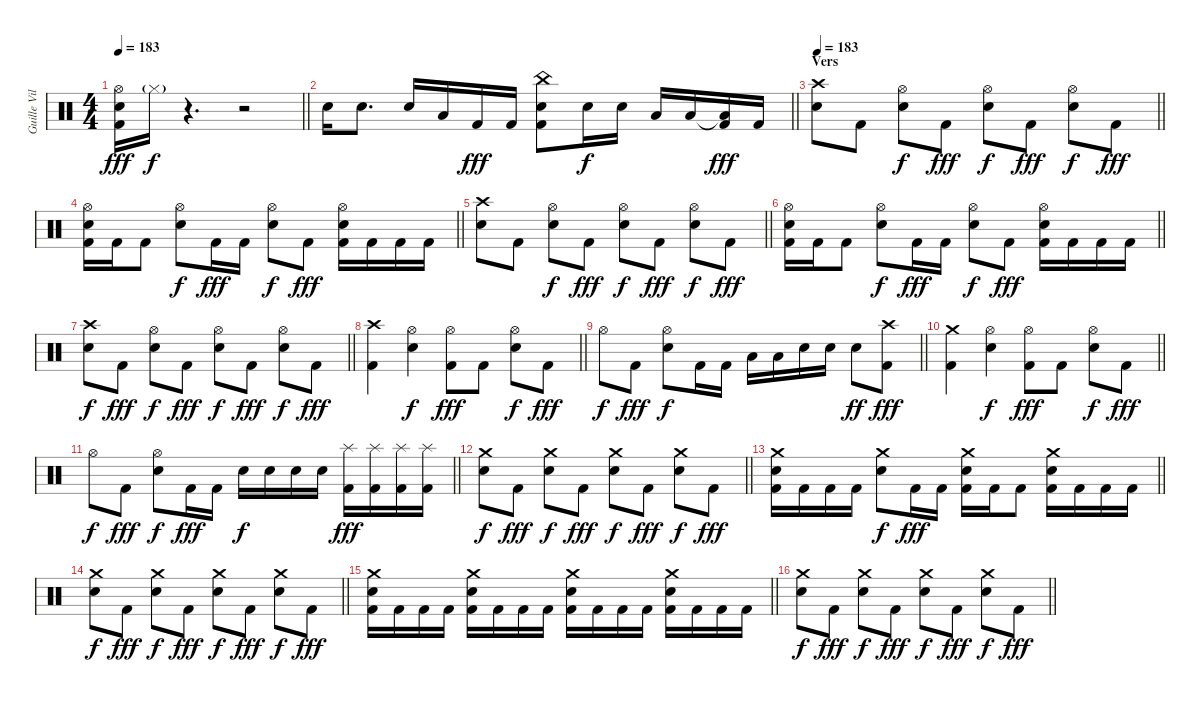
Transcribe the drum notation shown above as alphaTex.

\track ("Guille Vila" "Guille Vil") {instrument percussion}
\staff {score}
\articulation defaults
\ts (4 4)
\tempo 183
\clef neutral
\barLineRight lightlight
\ks c
("Hi-Hat (open)" "Snare (hit) 2" "Kick (hit) 2").16{dy fff} "Hi-Hat (closed)"{g}.16{dy f} r.4{d} r.2 |
\barLineRight lightlight "Snare (hit) 2".16 "Snare (hit) 2".8{d} "Snare (hit) 2".16 "Low Tom (hit)".16 "Kick (hit) 2".16{dy fff} "Kick (hit) 2".16
("China (hit)" "Snare (hit) 2" "Kick (hit) 2").8 "Snare (hit) 2".16{dy f} "Snare (hit) 2".16 "Low Tom (hit)".16 "Low Tom (hit)".16 ("Low Tom (hit)"{t} "Kick (hit) 2").16{dy fff} "Kick (hit) 2".16 |
\section ("" "Vers")
\tempo 183
\barLineRight lightlight
("Crash high (hit)" "Snare (hit) 2").8 "Kick (hit) 2".8 ("Hi-Hat (open)" "Snare (hit) 2").8{dy f} "Kick (hit) 2".8{dy fff} ("Hi-Hat (open)" "Snare (hit) 2").8{dy f} "Kick (hit) 2".8{dy fff} ("Hi-Hat (open)" "Snare (hit) 2").8{dy f} "Kick (hit) 2".8{dy fff} |
\barLineRight lightlight
("Hi-Hat (open)" "Snare (hit) 2" "Kick (hit) 2").16 "Kick (hit) 2".16 "Kick (hit) 2".8 ("Hi-Hat (open)" "Snare (hit) 2").8{dy f} "Kick (hit) 2".16{dy fff} "Kick (hit) 2".16 ("Hi-Hat (open)" "Snare (hit) 2").8{dy f} "Kick (hit) 2".8{dy fff} ("Hi-Hat (open)" "Snare (hit) 2" "Kick (hit) 2").16 "Kick (hit) 2".16 "Kick (hit) 2".16 "Kick (hit) 2".16 |
\barLineRight lightlight
("Crash high (hit)" "Snare (hit) 2").8 "Kick (hit) 2".8 ("Hi-Hat (open)" "Snare (hit) 2").8{dy f} "Kick (hit) 2".8{dy fff} ("Hi-Hat (open)" "Snare (hit) 2").8{dy f} "Kick (hit) 2".8{dy fff} ("Hi-Hat (open)" "Snare (hit) 2").8{dy f} "Kick (hit) 2".8{dy fff} |
\barLineRight lightlight
("Hi-Hat (open)" "Snare (hit) 2" "Kick (hit) 2").16 "Kick (hit) 2".16 "Kick (hit) 2".8 ("Hi-Hat (open)" "Snare (hit) 2").8{dy f} "Kick (hit) 2".16{dy fff} "Kick (hit) 2".16 ("Hi-Hat (open)" "Snare (hit) 2").8{dy f} "Kick (hit) 2".8{dy fff} ("Hi-Hat (open)" "Snare (hit) 2" "Kick (hit) 2").16 "Kick (hit) 2".16 "Kick (hit) 2".16 "Kick (hit) 2".16 |
\barLineRight lightlight
("Crash high (hit)" "Snare (hit) 2").8{dy f} "Kick (hit) 2".8{dy fff} ("Hi-Hat (open)" "Snare (hit) 2").8{dy f} "Kick (hit) 2".8{dy fff} ("Hi-Hat (open)" "Snare (hit) 2").8{dy f} "Kick (hit) 2".8{dy fff} ("Hi-Hat (open)" "Snare (hit) 2").8{dy f} "Kick (hit) 2".8{dy fff} |
\barLineRight lightlight
("Crash high (hit)" "Kick (hit) 2").4 ("Hi-Hat (open)" "Snare (hit) 2").4{dy f} ("Hi-Hat (open)" "Kick (hit) 2").8{dy fff} "Kick (hit) 2".8 ("Hi-Hat (open)" "Snare (hit) 2").8{dy f} "Kick (hit) 2".8{dy fff} |
\barLineRight lightlight "Hi-Hat (open)".8{dy f} "Kick (hit) 2".8{dy fff}
("Hi-Hat (open)" "Snare (hit) 2").8{dy f} "Kick (hit) 2".16 "Kick (hit) 2".16 "Low Tom (hit)".16 "Low Tom (hit)".16 "Snare (hit) 2".16 "Snare (hit) 2".16 "Snare (hit) 2".8{dy ff} ("Crash high (hit)" "Kick (hit) 2").8{dy fff} |
\barLineRight lightlight
("Crash medium (hit)" "Kick (hit) 2").4 ("Hi-Hat (open)" "Snare (hit) 2").4{dy f} ("Hi-Hat (open)" "Kick (hit) 2").8{dy fff} "Kick (hit) 2".8 ("Hi-Hat (open)" "Snare (hit) 2").8{dy f} "Kick (hit) 2".8{dy fff} |
\barLineRight lightlight "Hi-Hat (open)".8{dy f} "Kick (hit) 2".8{dy fff}
("Hi-Hat (open)" "Snare (hit) 2").8{dy f} "Kick (hit) 2".16{dy fff} "Kick (hit) 2".16 "Snare (hit) 2".16{dy f} "Snare (hit) 2".16 "Snare (hit) 2".16 "Snare (hit) 2".16 ("Splash (hit)" "Kick (hit) 2").16{dy fff} ("Splash (hit)" "Kick (hit) 2").16 ("Splash (hit)" "Kick (hit) 2").16 ("Splash (hit)" "Kick (hit) 2").16 |
\barLineRight lightlight
("Crash medium (hit)" "Snare (hit) 2").8{dy f} "Kick (hit) 2".8{dy fff} ("Crash medium (hit)" "Snare (hit) 2").8{dy f} "Kick (hit) 2".8{dy fff} ("Crash medium (hit)" "Snare (hit) 2").8{dy f} "Kick (hit) 2".8{dy fff} ("Crash medium (hit)" "Snare (hit) 2").8{dy f} "Kick (hit) 2".8{dy fff} |
\barLineRight lightlight
("Crash medium (hit)" "Snare (hit) 2" "Kick (hit) 2").16 "Kick (hit) 2".16 "Kick (hit) 2".16 "Kick (hit) 2".16 ("Crash medium (hit)" "Snare (hit) 2").8{dy f} "Kick (hit) 2".16{dy fff} "Kick (hit) 2".16 ("Crash medium (hit)" "Snare (hit) 2" "Kick (hit) 2").16 "Kick (hit) 2".16 "Kick (hit) 2".8 ("Crash medium (hit)" "Snare (hit) 2" "Kick (hit) 2").16 "Kick (hit) 2".16 "Kick (hit) 2".16 "Kick (hit) 2".16 |
\barLineRight lightlight
("Crash medium (hit)" "Snare (hit) 2").8{dy f} "Kick (hit) 2".8{dy fff} ("Crash medium (hit)" "Snare (hit) 2").8{dy f} "Kick (hit) 2".8{dy fff} ("Crash medium (hit)" "Snare (hit) 2").8{dy f} "Kick (hit) 2".8{dy fff} ("Crash medium (hit)" "Snare (hit) 2").8{dy f} "Kick (hit) 2".8{dy fff} |
\barLineRight lightlight
("Crash medium (hit)" "Snare (hit) 2" "Kick (hit) 2").16 "Kick (hit) 2".16 "Kick (hit) 2".16 "Kick (hit) 2".16 ("Crash medium (hit)" "Snare (hit) 2" "Kick (hit) 2").16 "Kick (hit) 2".16 "Kick (hit) 2".16 "Kick (hit) 2".16 ("Crash medium (hit)" "Snare (hit) 2" "Kick (hit) 2").16 "Kick (hit) 2".16 "Kick (hit) 2".16 "Kick (hit) 2".16 ("Crash medium (hit)" "Snare (hit) 2" "Kick (hit) 2").16 "Kick (hit) 2".16 "Kick (hit) 2".16 "Kick (hit) 2".16 |
\barLineRight lightlight
("Crash medium (hit)" "Snare (hit) 2").8{dy f} "Kick (hit) 2".8{dy fff} ("Crash medium (hit)" "Snare (hit) 2").8{dy f} "Kick (hit) 2".8{dy fff} ("Crash medium (hit)" "Snare (hit) 2").8{dy f} "Kick (hit) 2".8{dy fff} ("Crash medium (hit)" "Snare (hit) 2").8{dy f} "Kick (hit) 2".8{dy fff}
